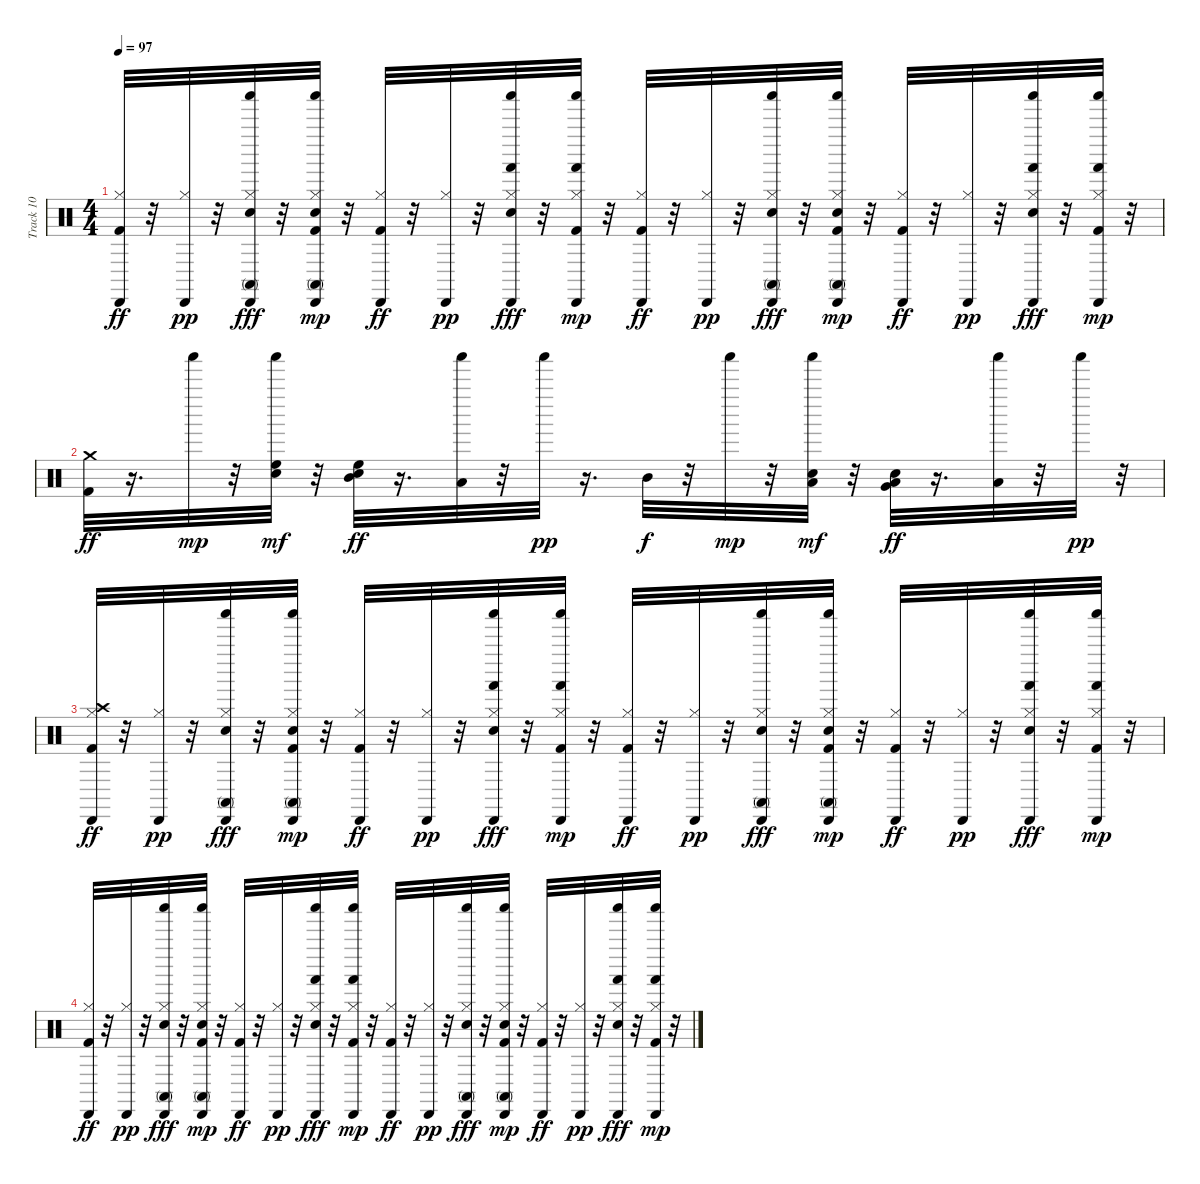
\track ("Track 10" "Track 10") {instrument percussion}
\staff {score}
\articulation defaults
\ts (4 4)
\tempo 97
\clef neutral
\ks c
("Hi-Hat (closed)" "Cabasa (hit)" "Kick (hit) 2").32{dy ff} r.32 ("Hi-Hat (closed)" "Cabasa (hit)").32{dy pp} r.32 ("Hi-Hat (closed)" "Shaker (hit)" "Conga high (mute)" "Cabasa (hit)" "Snare (hit) 2").32{dy fff} r.32 ("Hi-Hat (closed)" "Shaker (hit)" "Conga high (mute)" "Cabasa (hit)" "Snare (hit) 2" "Kick (hit) 2").32{dy mp} r.32 ("Hi-Hat (closed)" "Cabasa (hit)" "Kick (hit) 2").32{dy ff} r.32 ("Hi-Hat (closed)" "Cabasa (hit)").32{dy pp} r.32 ("Hi-Hat (closed)" "Shaker (hit)" "Hand (hit)" "Cabasa (hit)" "Snare (hit) 2").32{dy fff} r.32 ("Hi-Hat (closed)" "Shaker (hit)" "Hand (hit)" "Cabasa (hit)" "Kick (hit) 2").32{dy mp} r.32 ("Hi-Hat (closed)" "Cabasa (hit)" "Kick (hit) 2").32{dy ff} r.32 ("Hi-Hat (closed)" "Cabasa (hit)").32{dy pp} r.32 ("Hi-Hat (closed)" "Shaker (hit)" "Conga high (mute)" "Cabasa (hit)" "Snare (hit) 2").32{dy fff} r.32 ("Hi-Hat (closed)" "Shaker (hit)" "Conga high (mute)" "Cabasa (hit)" "Snare (hit) 2" "Kick (hit) 2").32{dy mp} r.32 ("Hi-Hat (closed)" "Cabasa (hit)" "Kick (hit) 2").32{dy ff} r.32 ("Hi-Hat (closed)" "Cabasa (hit)").32{dy pp} r.32 ("Hi-Hat (closed)" "Shaker (hit)" "Hand (hit)" "Cabasa (hit)" "Snare (hit) 2").32{dy fff} r.32 ("Hi-Hat (closed)" "Shaker (hit)" "Hand (hit)" "Cabasa (hit)" "Kick (hit) 2").32{dy mp} r.32 |
("Crash medium (hit)" "Kick (hit) 2").32{dy ff} r.16{d} "Shaker (hit)".32{dy mp} r.32 ("Shaker (hit)" "High Floor Tom (hit)" "Electric Snare (hit)").32{dy mf} r.32 ("Mid Tom (hit)" "Electric Snare (hit)" "High Floor Tom (hit)").32{dy ff} r.16{d} ("Shaker (hit)" "Low Tom (hit)").32 r.32 "Shaker (hit)".32{dy pp} r.16{d} "Mid Tom (hit)".32{dy f} r.32 "Shaker (hit)".32{dy mp} r.32 ("Shaker (hit)" "Low Tom (hit)" "Electric Snare (hit)").32{dy mf} r.32 ("Very Low Tom (hit)" "Electric Snare (hit)" "Low Tom (hit)").32{dy ff} r.16{d} ("Shaker (hit)" "Low Floor Tom (hit)").32 r.32 "Shaker (hit)".32{dy pp} r.32 |
("Hi-Hat (closed)" "Cabasa (hit)" "Crash high (hit)" "Kick (hit) 2").32{dy ff} r.32 ("Hi-Hat (closed)" "Cabasa (hit)").32{dy pp} r.32 ("Hi-Hat (closed)" "Shaker (hit)" "Conga high (mute)" "Cabasa (hit)" "Snare (hit) 2").32{dy fff} r.32 ("Hi-Hat (closed)" "Shaker (hit)" "Conga high (mute)" "Cabasa (hit)" "Snare (hit) 2" "Kick (hit) 2").32{dy mp} r.32 ("Hi-Hat (closed)" "Cabasa (hit)" "Kick (hit) 2").32{dy ff} r.32 ("Hi-Hat (closed)" "Cabasa (hit)").32{dy pp} r.32 ("Hi-Hat (closed)" "Shaker (hit)" "Hand (hit)" "Cabasa (hit)" "Snare (hit) 2").32{dy fff} r.32 ("Hi-Hat (closed)" "Shaker (hit)" "Hand (hit)" "Cabasa (hit)" "Kick (hit) 2").32{dy mp} r.32 ("Hi-Hat (closed)" "Cabasa (hit)" "Kick (hit) 2").32{dy ff} r.32 ("Hi-Hat (closed)" "Cabasa (hit)").32{dy pp} r.32 ("Hi-Hat (closed)" "Shaker (hit)" "Conga high (mute)" "Cabasa (hit)" "Snare (hit) 2").32{dy fff} r.32 ("Hi-Hat (closed)" "Shaker (hit)" "Conga high (mute)" "Cabasa (hit)" "Kick (hit) 2" "Snare (hit) 2").32{dy mp} r.32 ("Hi-Hat (closed)" "Cabasa (hit)" "Kick (hit) 2").32{dy ff} r.32 ("Hi-Hat (closed)" "Cabasa (hit)").32{dy pp} r.32 ("Hi-Hat (closed)" "Shaker (hit)" "Hand (hit)" "Cabasa (hit)" "Snare (hit) 2").32{dy fff} r.32 ("Hi-Hat (closed)" "Shaker (hit)" "Hand (hit)" "Cabasa (hit)" "Kick (hit) 2").32{dy mp} r.32 |
("Hi-Hat (closed)" "Cabasa (hit)" "Kick (hit) 2").32{dy ff} r.32 ("Hi-Hat (closed)" "Cabasa (hit)").32{dy pp} r.32 ("Hi-Hat (closed)" "Shaker (hit)" "Conga high (mute)" "Cabasa (hit)" "Snare (hit) 2").32{dy fff} r.32 ("Hi-Hat (closed)" "Shaker (hit)" "Conga high (mute)" "Cabasa (hit)" "Kick (hit) 2" "Snare (hit) 2").32{dy mp} r.32 ("Hi-Hat (closed)" "Cabasa (hit)" "Kick (hit) 2").32{dy ff} r.32 ("Hi-Hat (closed)" "Cabasa (hit)").32{dy pp} r.32 ("Hi-Hat (closed)" "Shaker (hit)" "Hand (hit)" "Cabasa (hit)" "Snare (hit) 2").32{dy fff} r.32 ("Hi-Hat (closed)" "Shaker (hit)" "Hand (hit)" "Cabasa (hit)" "Kick (hit) 2").32{dy mp} r.32 ("Hi-Hat (closed)" "Cabasa (hit)" "Kick (hit) 2").32{dy ff} r.32 ("Hi-Hat (closed)" "Cabasa (hit)").32{dy pp} r.32 ("Hi-Hat (closed)" "Shaker (hit)" "Conga high (mute)" "Cabasa (hit)" "Snare (hit) 2").32{dy fff} r.32 ("Hi-Hat (closed)" "Shaker (hit)" "Conga high (mute)" "Cabasa (hit)" "Kick (hit) 2" "Snare (hit) 2").32{dy mp} r.32 ("Hi-Hat (closed)" "Cabasa (hit)" "Kick (hit) 2").32{dy ff} r.32 ("Hi-Hat (closed)" "Cabasa (hit)").32{dy pp} r.32 ("Hi-Hat (closed)" "Shaker (hit)" "Hand (hit)" "Cabasa (hit)" "Snare (hit) 2").32{dy fff} r.32 ("Hi-Hat (closed)" "Shaker (hit)" "Hand (hit)" "Cabasa (hit)" "Kick (hit) 2").32{dy mp} r.32
